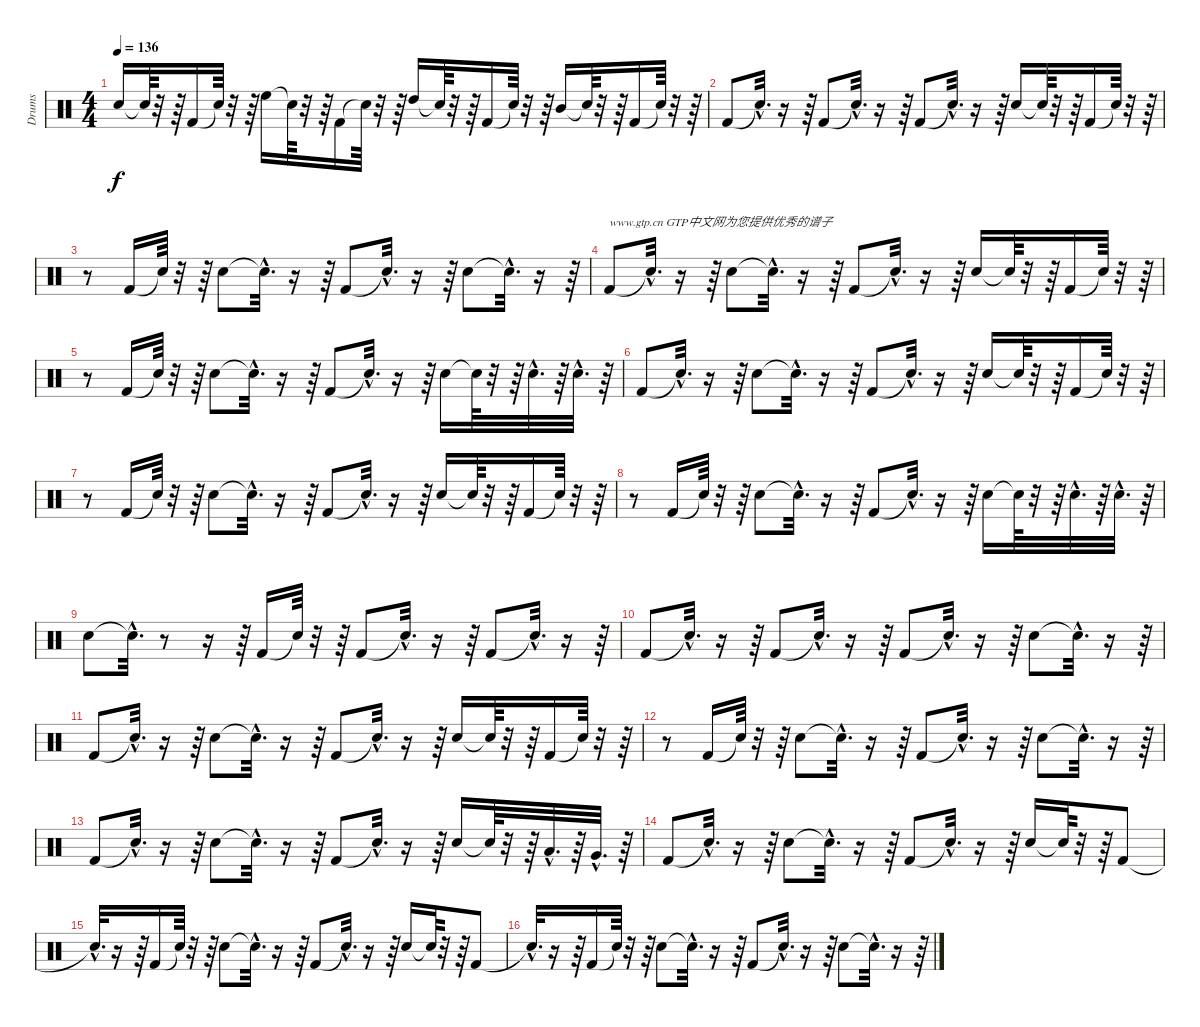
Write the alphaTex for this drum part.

\track ("Drums" "Drums") {instrument percussion}
\staff {score}
\articulation defaults
\ts (4 4)
\tempo 136
\clef neutral
\ks c "Snare (hit) 2".16{dy f} "Snare (hit)"{t}.64
r.32 r.64 "Kick (hit) 2".16 "Snare (hit)"{t}.64 r.32 r.64 "High Floor Tom (hit)".16 "Snare (hit)"{t}.64 r.32 r.64 "Kick (hit) 2".16 "Snare (hit)"{t}.64 r.32 r.64 "High Tom (hit)".16 "Snare (hit)"{t}.64 r.32 r.64 "Kick (hit) 2".16 "Snare (hit)"{t}.64 r.32 r.64 "Mid Tom (hit)".16 "Snare (hit)"{t}.64 r.32 r.64 "Kick (hit) 2".16 "Snare (hit)"{t}.64 r.32 r.64 |
"Kick (hit) 2".8 "Snare (hit)"{hac t}.32{d} r.16 r.64 "Kick (hit) 2".8 "Snare (hit)"{hac t}.32{d} r.16 r.64 "Kick (hit) 2".8 "Snare (hit)"{hac t}.32{d} r.16 r.64 "Snare (hit) 2".16 "Snare (hit)"{t}.64 r.32 r.64 "Kick (hit) 2".16 "Snare (hit)"{t}.64 r.32 r.64 |
r.8 "Kick (hit) 2".16 "Snare (hit)"{t}.64 r.32 r.64 "Snare (hit) 2".8 "Snare (hit)"{hac t}.32{d} r.16 r.64 "Kick (hit) 2".8 "Snare (hit)"{hac t}.32{d} r.16 r.64 "Snare (hit) 2".8 "Snare (hit)"{hac t}.32{d} r.16 r.64 |
"Kick (hit) 2".8{txt "www.gtp.cn GTP中文网为您提供优秀的谱子"} "Snare (hit)"{hac t}.32{d} r.16 r.64 "Snare (hit) 2".8 "Snare (hit)"{hac t}.32{d} r.16 r.64 "Kick (hit) 2".8 "Snare (hit)"{hac t}.32{d} r.16 r.64 "Snare (hit) 2".16 "Snare (hit)"{t}.64 r.32 r.64 "Kick (hit) 2".16 "Snare (hit)"{t}.64 r.32 r.64 |
r.8 "Kick (hit) 2".16 "Snare (hit)"{t}.64 r.32 r.64 "Snare (hit) 2".8 "Snare (hit)"{hac t}.32{d} r.16 r.64 "Kick (hit) 2".8 "Snare (hit)"{hac t}.32{d} r.16 r.64 "Snare (hit) 2".16 "Snare (hit)"{t}.64 r.32 r.64 "Snare (hit) 2"{hac}.32{d} r.64 "Snare (hit) 2"{hac}.32{d} r.64 |
"Kick (hit) 2".8 "Snare (hit)"{hac t}.32{d} r.16 r.64 "Snare (hit) 2".8 "Snare (hit)"{hac t}.32{d} r.16 r.64 "Kick (hit) 2".8 "Snare (hit)"{hac t}.32{d} r.16 r.64 "Snare (hit) 2".16 "Snare (hit)"{t}.64 r.32 r.64 "Kick (hit) 2".16 "Snare (hit)"{t}.64 r.32 r.64 |
r.8 "Kick (hit) 2".16 "Snare (hit)"{t}.64 r.32 r.64 "Snare (hit) 2".8 "Snare (hit)"{hac t}.32{d} r.16 r.64 "Kick (hit) 2".8 "Snare (hit)"{hac t}.32{d} r.16 r.64 "Snare (hit) 2".16 "Snare (hit)"{t}.64 r.32 r.64 "Kick (hit) 2".16 "Snare (hit)"{t}.64 r.32 r.64 |
r.8 "Kick (hit) 2".16 "Snare (hit)"{t}.64 r.32 r.64 "Snare (hit) 2".8 "Snare (hit)"{hac t}.32{d} r.16 r.64 "Kick (hit) 2".8 "Snare (hit)"{hac t}.32{d} r.16 r.64 "Snare (hit) 2".16 "Snare (hit)"{t}.64 r.32 r.64 "Snare (hit) 2"{hac}.32{d} r.64 "Snare (hit) 2"{hac}.32{d} r.64 |
"Snare (hit) 2".8 "Snare (hit)"{hac t}.32{d} r.8 r.16 r.64 "Kick (hit) 2".16 "Snare (hit)"{t}.64 r.32 r.64 "Kick (hit) 2".8 "Snare (hit)"{hac t}.32{d} r.16 r.64 "Kick (hit) 2".8 "Snare (hit)"{hac t}.32{d} r.16 r.64 |
"Kick (hit) 2".8 "Snare (hit)"{hac t}.32{d} r.16 r.64 "Kick (hit) 2".8 "Snare (hit)"{hac t}.32{d} r.16 r.64 "Kick (hit) 2".8 "Snare (hit)"{hac t}.32{d} r.16 r.64 "Snare (hit) 2".8 "Snare (hit)"{hac t}.32{d} r.16 r.64 |
"Kick (hit) 2".8 "Snare (hit)"{hac t}.32{d} r.16 r.64 "Snare (hit) 2".8 "Snare (hit)"{hac t}.32{d} r.16 r.64 "Kick (hit) 2".8 "Snare (hit)"{hac t}.32{d} r.16 r.64 "Snare (hit) 2".16 "Snare (hit)"{t}.64 r.32 r.64 "Kick (hit) 2".16 "Snare (hit)"{t}.64 r.32 r.64 |
r.8 "Kick (hit) 2".16 "Snare (hit)"{t}.64 r.32 r.64 "Snare (hit) 2".8 "Snare (hit)"{hac t}.32{d} r.16 r.64 "Kick (hit) 2".8 "Snare (hit)"{hac t}.32{d} r.16 r.64 "Snare (hit) 2".8 "Snare (hit)"{hac t}.32{d} r.16 r.64 |
"Kick (hit) 2".8 "Snare (hit)"{hac t}.32{d} r.16 r.64 "Snare (hit) 2".8 "Snare (hit)"{hac t}.32{d} r.16 r.64 "Kick (hit) 2".8 "Snare (hit)"{hac t}.32{d} r.16 r.64 "Snare (hit) 2".16 "Snare (hit)"{t}.64 r.32 r.64 "Low Tom (hit)"{hac}.32{d} r.64 "Very Low Tom (hit)"{hac}.32{d} r.64 |
"Kick (hit) 2".8 "Snare (hit)"{hac t}.32{d} r.16 r.64 "Snare (hit) 2".8 "Snare (hit)"{hac t}.32{d} r.16 r.64 "Kick (hit) 2".8 "Snare (hit)"{hac t}.32{d} r.16 r.64 "Snare (hit) 2".16 "Snare (hit)"{t}.64 r.32 r.64 "Kick (hit) 2".8 |
"Snare (hit)"{hac t}.32{d} r.16 r.64 "Kick (hit) 2".16 "Snare (hit)"{t}.64 r.32 r.64 "Snare (hit) 2".8 "Snare (hit)"{hac t}.32{d} r.16 r.64 "Kick (hit) 2".8 "Snare (hit)"{hac t}.32{d} r.16 r.64 "Snare (hit) 2".16 "Snare (hit)"{t}.64 r.32 r.64 "Kick (hit) 2".8 |
"Snare (hit)"{hac t}.32{d} r.16 r.64 "Kick (hit) 2".16 "Snare (hit)"{t}.64 r.32 r.64 "Snare (hit) 2".8 "Snare (hit)"{hac t}.32{d} r.16 r.64 "Kick (hit) 2".8 "Snare (hit)"{hac t}.32{d} r.16 r.64 "Snare (hit) 2".8 "Snare (hit)"{hac t}.32{d} r.16 r.64
